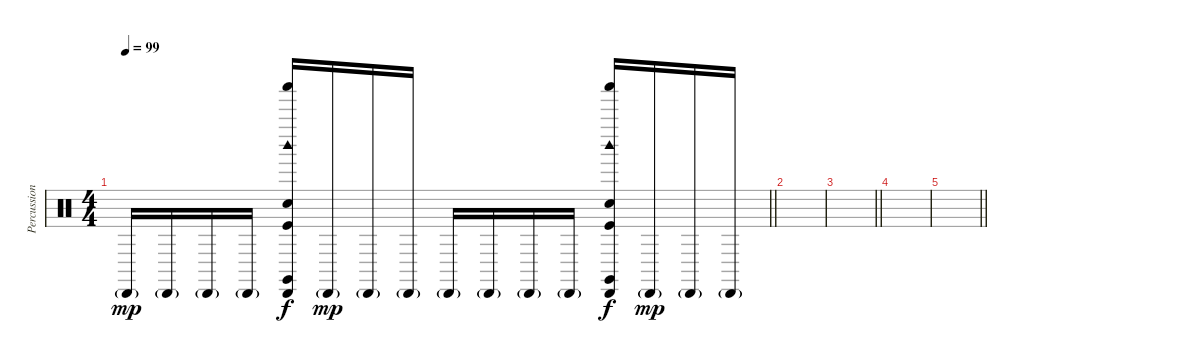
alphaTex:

\track ("Percussion" "Percussion") {instrument percussion}
\staff {score}
\articulation defaults
\ts (4 4)
\tempo 99
\clef neutral
\barLineRight lightlight
\ks c "Cabasa (hit)"{g}.16{dy mp} "Cabasa (hit)"{g}.16 "Cabasa (hit)"{g}.16 "Cabasa (hit)"{g}.16
("Cabasa (hit)" "Shaker (hit)" "Claves (hit)" "Woodblock high (hit)" "Hand Clap (hit)" "Kick (hit)").16{dy f} "Cabasa (hit)"{g}.16{dy mp} "Cabasa (hit)"{g}.16 "Cabasa (hit)"{g}.16 "Cabasa (hit)"{g}.16 "Cabasa (hit)"{g}.16 "Cabasa (hit)"{g}.16 "Cabasa (hit)"{g}.16 ("Cabasa (hit)" "Shaker (hit)" "Claves (hit)" "Woodblock high (hit)" "Hand Clap (hit)" "Kick (hit)").16{dy f} "Cabasa (hit)"{g}.16{dy mp} "Cabasa (hit)"{g}.16 "Cabasa (hit)"{g}.16 |
|
\barLineRight lightlight
|
|
\barLineRight lightlight
